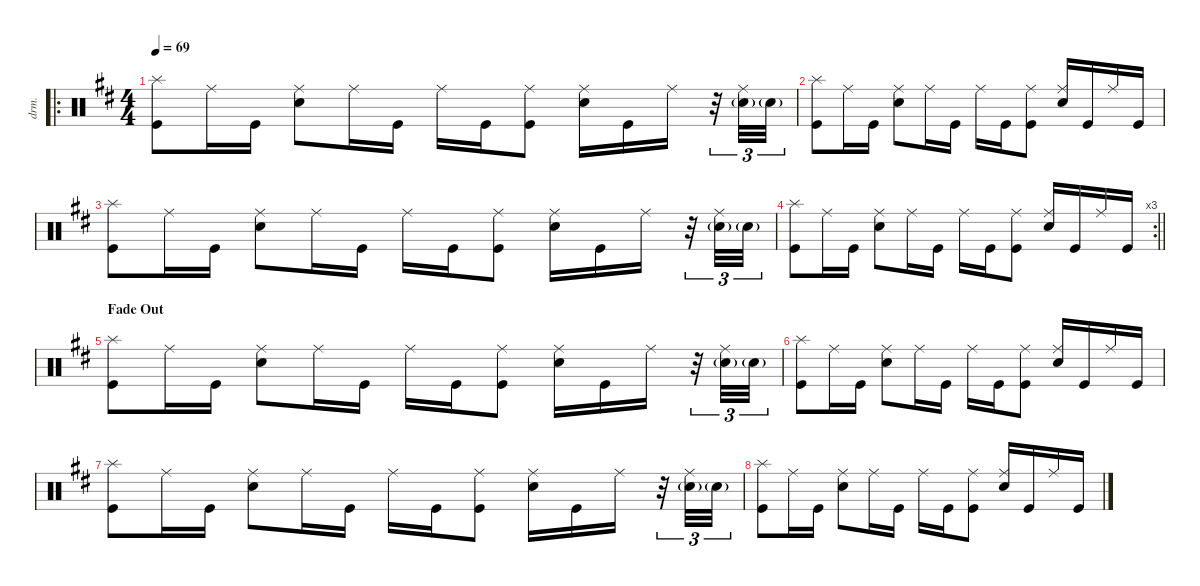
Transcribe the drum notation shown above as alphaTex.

\defaultSystemsLayout 4
\hideDynamics
\bracketExtendMode nobrackets
\otherSystemsTrackNameOrientation horizontal
\track ("Percussion" "drm.") {defaultSystemsLayout 4 instrument percussion}
\staff {score}
\articulation defaults
\ro
\ts (4 4)
\tempo 69
\clef neutral
\ks bminor
("Splash (hit)"{acc forcenatural} "Kick (hit)"{acc forcenatural}).8{dy f beam Down} "Ride (middle)"{acc forcenatural}.16{beam Down} "Kick (hit)"{acc forcenatural}.16{beam Down} ("Snare (hit) 2"{acc forcenatural} "Ride (middle)"{acc forcenatural}).8{beam Down} "Ride (middle)"{acc forcenatural}.16{beam Down} "Kick (hit)"{acc forcenatural}.16{beam Down} "Ride (middle)"{acc forcenatural}.16{beam Down} "Kick (hit)"{acc forcenatural}.16{beam Down} ("Kick (hit)"{acc forcenatural} "Ride (middle)"{acc forcenatural}).8{beam Down} ("Snare (hit) 2"{acc forcenatural} "Ride (middle)"{acc forcenatural}).16{beam Down} "Kick (hit)"{acc forcenatural}.16{beam Down} "Ride (middle)"{acc forcenatural}.16{beam Down} r.32{tu (3 2) beam Down} ("Snare (hit) 2"{g acc forcenatural} "Ride (middle)"{acc forcenatural}).32{tu (3 2) beam Down} "Snare (hit) 2"{g acc forcenatural}.32{tu (3 2) dy ff beam Down} |
("Splash (hit)"{acc forcenatural} "Kick (hit)"{acc forcenatural}).8{dy f beam Down} "Ride (middle)"{acc forcenatural}.16{beam Down} "Kick (hit)"{acc forcenatural}.16{beam Down} ("Snare (hit) 2"{acc forcenatural} "Ride (middle)"{acc forcenatural}).8{beam Down} "Ride (middle)"{acc forcenatural}.16{beam Down} "Kick (hit)"{acc forcenatural}.16{beam Down} "Ride (middle)"{acc forcenatural}.16{beam Down} "Kick (hit)"{acc forcenatural}.16{beam Down} ("Kick (hit)"{acc forcenatural} "Ride (middle)"{acc forcenatural}).8{beam Down} ("Snare (hit) 2"{acc forcenatural} "Ride (middle)"{acc forcenatural}).16{beam Up} "Kick (hit)"{acc forcenatural}.16{beam Up} "Ride (middle)"{acc forcenatural}.16{beam Up} "Kick (hit)"{acc forcenatural}.16{beam Up} |
("Splash (hit)"{acc forcenatural} "Kick (hit)"{acc forcenatural}).8{beam Down} "Ride (middle)"{acc forcenatural}.16{beam Down} "Kick (hit)"{acc forcenatural}.16{beam Down} ("Snare (hit) 2"{acc forcenatural} "Ride (middle)"{acc forcenatural}).8{beam Down} "Ride (middle)"{acc forcenatural}.16{beam Down} "Kick (hit)"{acc forcenatural}.16{beam Down} "Ride (middle)"{acc forcenatural}.16{beam Down} "Kick (hit)"{acc forcenatural}.16{beam Down} ("Kick (hit)"{acc forcenatural} "Ride (middle)"{acc forcenatural}).8{beam Down} ("Snare (hit) 2"{acc forcenatural} "Ride (middle)"{acc forcenatural}).16{beam Down} "Kick (hit)"{acc forcenatural}.16{beam Down} "Ride (middle)"{acc forcenatural}.16{beam Down} r.32{tu (3 2) beam Down} ("Snare (hit) 2"{g acc forcenatural} "Ride (middle)"{acc forcenatural}).32{tu (3 2) beam Down} "Snare (hit) 2"{g acc forcenatural}.32{tu (3 2) dy ff beam Down} |
\rc 3
\barLineRight lightlight
("Splash (hit)"{acc forcenatural} "Kick (hit)"{acc forcenatural}).8{dy f beam Down} "Ride (middle)"{acc forcenatural}.16{beam Down} "Kick (hit)"{acc forcenatural}.16{beam Down} ("Snare (hit) 2"{acc forcenatural} "Ride (middle)"{acc forcenatural}).8{beam Down} "Ride (middle)"{acc forcenatural}.16{beam Down} "Kick (hit)"{acc forcenatural}.16{beam Down} "Ride (middle)"{acc forcenatural}.16{beam Down} "Kick (hit)"{acc forcenatural}.16{beam Down} ("Kick (hit)"{acc forcenatural} "Ride (middle)"{acc forcenatural}).8{beam Down} ("Snare (hit) 2"{acc forcenatural} "Ride (middle)"{acc forcenatural}).16{beam Up} "Kick (hit)"{acc forcenatural}.16{beam Up} "Ride (middle)"{acc forcenatural}.16{beam Up} "Kick (hit)"{acc forcenatural}.16{beam Up} |
\section ("" "Fade Out")
("Splash (hit)"{acc forcenatural} "Kick (hit)"{acc forcenatural}).8{beam Down} "Ride (middle)"{acc forcenatural}.16{beam Down} "Kick (hit)"{acc forcenatural}.16{beam Down} ("Snare (hit) 2"{acc forcenatural} "Ride (middle)"{acc forcenatural}).8{beam Down} "Ride (middle)"{acc forcenatural}.16{beam Down} "Kick (hit)"{acc forcenatural}.16{beam Down} "Ride (middle)"{acc forcenatural}.16{beam Down} "Kick (hit)"{acc forcenatural}.16{beam Down} ("Kick (hit)"{acc forcenatural} "Ride (middle)"{acc forcenatural}).8{beam Down} ("Snare (hit) 2"{acc forcenatural} "Ride (middle)"{acc forcenatural}).16{beam Down} "Kick (hit)"{acc forcenatural}.16{beam Down} "Ride (middle)"{acc forcenatural}.16{beam Down} r.32{tu (3 2) beam Down} ("Snare (hit) 2"{g acc forcenatural} "Ride (middle)"{acc forcenatural}).32{tu (3 2) beam Down} "Snare (hit) 2"{g acc forcenatural}.32{tu (3 2) dy ff beam Down} |
("Splash (hit)"{acc forcenatural} "Kick (hit)"{acc forcenatural}).8{dy f beam Down} "Ride (middle)"{acc forcenatural}.16{beam Down} "Kick (hit)"{acc forcenatural}.16{beam Down} ("Snare (hit) 2"{acc forcenatural} "Ride (middle)"{acc forcenatural}).8{beam Down} "Ride (middle)"{acc forcenatural}.16{beam Down} "Kick (hit)"{acc forcenatural}.16{beam Down} "Ride (middle)"{acc forcenatural}.16{beam Down} "Kick (hit)"{acc forcenatural}.16{beam Down} ("Kick (hit)"{acc forcenatural} "Ride (middle)"{acc forcenatural}).8{beam Down} ("Snare (hit) 2"{acc forcenatural} "Ride (middle)"{acc forcenatural}).16{beam Up} "Kick (hit)"{acc forcenatural}.16{beam Up} "Ride (middle)"{acc forcenatural}.16{beam Up} "Kick (hit)"{acc forcenatural}.16{beam Up} |
("Splash (hit)"{acc forcenatural} "Kick (hit)"{acc forcenatural}).8{beam Down} "Ride (middle)"{acc forcenatural}.16{beam Down} "Kick (hit)"{acc forcenatural}.16{beam Down} ("Snare (hit) 2"{acc forcenatural} "Ride (middle)"{acc forcenatural}).8{beam Down} "Ride (middle)"{acc forcenatural}.16{beam Down} "Kick (hit)"{acc forcenatural}.16{beam Down} "Ride (middle)"{acc forcenatural}.16{beam Down} "Kick (hit)"{acc forcenatural}.16{beam Down} ("Kick (hit)"{acc forcenatural} "Ride (middle)"{acc forcenatural}).8{beam Down} ("Snare (hit) 2"{acc forcenatural} "Ride (middle)"{acc forcenatural}).16{beam Down} "Kick (hit)"{acc forcenatural}.16{beam Down} "Ride (middle)"{acc forcenatural}.16{beam Down} r.32{tu (3 2) beam Down} ("Snare (hit) 2"{g acc forcenatural} "Ride (middle)"{acc forcenatural}).32{tu (3 2) beam Down} "Snare (hit) 2"{g acc forcenatural}.32{tu (3 2) dy ff beam Down} |
("Splash (hit)"{acc forcenatural} "Kick (hit)"{acc forcenatural}).8{dy f beam Down} "Ride (middle)"{acc forcenatural}.16{beam Down} "Kick (hit)"{acc forcenatural}.16{beam Down} ("Snare (hit) 2"{acc forcenatural} "Ride (middle)"{acc forcenatural}).8{beam Down} "Ride (middle)"{acc forcenatural}.16{beam Down} "Kick (hit)"{acc forcenatural}.16{beam Down} "Ride (middle)"{acc forcenatural}.16{beam Down} "Kick (hit)"{acc forcenatural}.16{beam Down} ("Kick (hit)"{acc forcenatural} "Ride (middle)"{acc forcenatural}).8{beam Down} ("Snare (hit) 2"{acc forcenatural} "Ride (middle)"{acc forcenatural}).16{beam Up} "Kick (hit)"{acc forcenatural}.16{beam Up} "Ride (middle)"{acc forcenatural}.16{beam Up} "Kick (hit)"{acc forcenatural}.16{beam Up}
